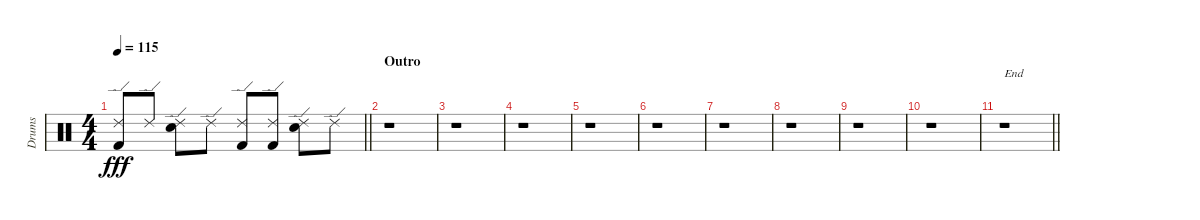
\track ("Drums" "Drums") {instrument percussion}
\staff {score}
\articulation defaults
\ts (4 4)
\tempo 115
\clef neutral
\barLineRight lightlight
\ks c
("Ride (edge) 2" "Kick (hit) 2").8{dy fff} "Ride (edge) 2".8 ("Ride (edge) 2" "Snare (hit) 2").8 "Ride (edge) 2".8 ("Ride (edge) 2" "Kick (hit) 2").8 ("Ride (edge) 2" "Kick (hit) 2").8 ("Ride (edge) 2" "Snare (hit) 2").8 "Ride (edge) 2".8 |
\section ("" "Outro")
r.1 |
r.1 |
r.1 |
r.1 |
r.1 |
r.1 |
r.1 |
r.1 |
r.1 |
\barLineRight lightlight
r.1{txt "End"}
